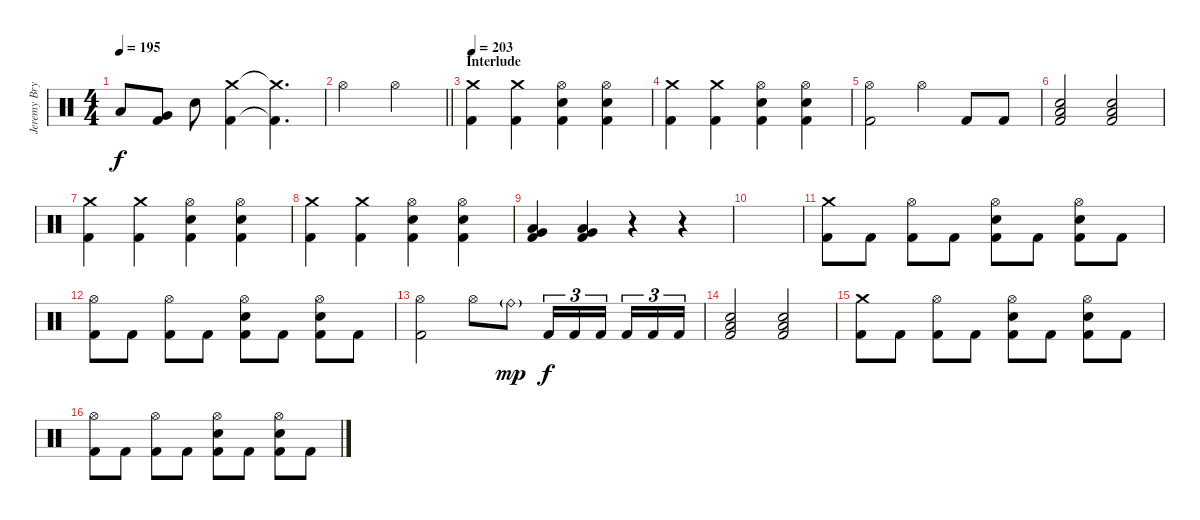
\track ("Jeremy Bryan - Drums" "Jeremy Bry") {instrument percussion}
\staff {score}
\articulation defaults
\ts (4 4)
\tempo 195
\clef neutral
\ks c "Low Tom (hit)".8{dy f}
("Very Low Tom (hit)" "Kick (hit) 2").8 "Electric Snare (hit)".8 ("Crash medium (hit)" "Kick (hit) 2").4 ("Crash medium (hit)"{t} "Kick (hit) 2"{t}).4{d} |
\barLineRight lightlight "Hi-Hat (open)".2 "Hi-Hat (open)".2
|
\section ("" "Interlude")
\tempo 203
("Crash medium (hit)" "Kick (hit) 2").4 ("Crash medium (hit)" "Kick (hit) 2").4 ("Hi-Hat (open)" "Electric Snare (hit)" "Kick (hit) 2").4 ("Hi-Hat (open)" "Electric Snare (hit)" "Kick (hit) 2").4 |
("Crash medium (hit)" "Kick (hit) 2").4 ("Crash medium (hit)" "Kick (hit) 2").4 ("Hi-Hat (open)" "Electric Snare (hit)" "Kick (hit) 2").4 ("Hi-Hat (open)" "Electric Snare (hit)" "Kick (hit) 2").4 |
("Hi-Hat (open)" "Kick (hit) 2").2 "Hi-Hat (open)".4 "Kick (hit) 2".8 "Kick (hit) 2".8 |
("Low Floor Tom (hit)" "Electric Snare (hit)" "Kick (hit) 2").2 ("Low Floor Tom (hit)" "Electric Snare (hit)" "Kick (hit) 2").2 |
("Crash medium (hit)" "Kick (hit) 2").4 ("Crash medium (hit)" "Kick (hit) 2").4 ("Hi-Hat (open)" "Electric Snare (hit)" "Kick (hit) 2").4 ("Hi-Hat (open)" "Electric Snare (hit)" "Kick (hit) 2").4 |
("Crash medium (hit)" "Kick (hit) 2").4 ("Crash medium (hit)" "Kick (hit) 2").4 ("Hi-Hat (open)" "Electric Snare (hit)" "Kick (hit) 2").4 ("Hi-Hat (open)" "Electric Snare (hit)" "Kick (hit) 2").4 |
("Low Floor Tom (hit)" "Very Low Tom (hit)" "Kick (hit) 2").4 ("Low Floor Tom (hit)" "Very Low Tom (hit)" "Kick (hit) 2").4 r.4 r.4 |
|
("Crash medium (hit)" "Kick (hit) 2").8 "Kick (hit) 2".8 ("Hi-Hat (open)" "Kick (hit) 2").8 "Kick (hit) 2".8 ("Hi-Hat (open)" "Electric Snare (hit)" "Kick (hit) 2").8 "Kick (hit) 2".8 ("Hi-Hat (open)" "Electric Snare (hit)" "Kick (hit) 2").8 "Kick (hit) 2".8 |
("Hi-Hat (open)" "Kick (hit) 2").8 "Kick (hit) 2".8 ("Hi-Hat (open)" "Kick (hit) 2").8 "Kick (hit) 2".8 ("Hi-Hat (open)" "Electric Snare (hit)" "Kick (hit) 2").8 "Kick (hit) 2".8 ("Hi-Hat (open)" "Electric Snare (hit)" "Kick (hit) 2").8 "Kick (hit) 2".8 |
("Hi-Hat (open)" "Kick (hit) 2").2 "Hi-Hat (open)".8 "Ride (bell)"{g}.8{dy mp} "Kick (hit) 2".16{tu (3 2) dy f} "Kick (hit) 2".16{tu (3 2)} "Kick (hit) 2".16{tu (3 2) beam splitsecondary} "Kick (hit) 2".16{tu (3 2)} "Kick (hit) 2".16{tu (3 2)} "Kick (hit) 2".16{tu (3 2)} |
("Low Floor Tom (hit)" "Electric Snare (hit)" "Kick (hit) 2").2 ("Low Floor Tom (hit)" "Electric Snare (hit)" "Kick (hit) 2").2 |
("Crash medium (hit)" "Kick (hit) 2").8 "Kick (hit) 2".8 ("Hi-Hat (open)" "Kick (hit) 2").8 "Kick (hit) 2".8 ("Hi-Hat (open)" "Electric Snare (hit)" "Kick (hit) 2").8 "Kick (hit) 2".8 ("Hi-Hat (open)" "Electric Snare (hit)" "Kick (hit) 2").8 "Kick (hit) 2".8 |
("Hi-Hat (open)" "Kick (hit) 2").8 "Kick (hit) 2".8 ("Hi-Hat (open)" "Kick (hit) 2").8 "Kick (hit) 2".8 ("Hi-Hat (open)" "Electric Snare (hit)" "Kick (hit) 2").8 "Kick (hit) 2".8 ("Hi-Hat (open)" "Electric Snare (hit)" "Kick (hit) 2").8 "Kick (hit) 2".8
